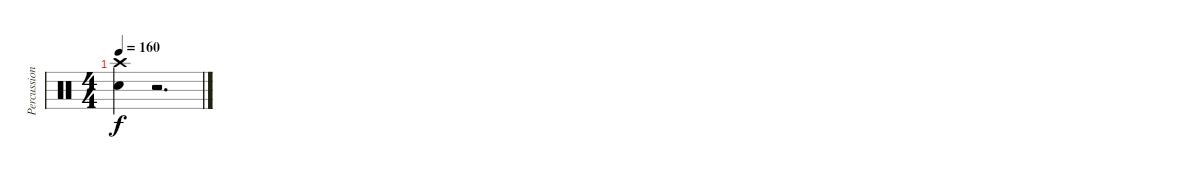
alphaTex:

\track ("Percussioni" "Percussion") {instrument percussion}
\staff {score}
\articulation defaults
\ts (4 4)
\tempo 160
\clef neutral
\ks c
("Crash high (hit)" "Snare (hit) 2").4{dy f} r.2{d}
